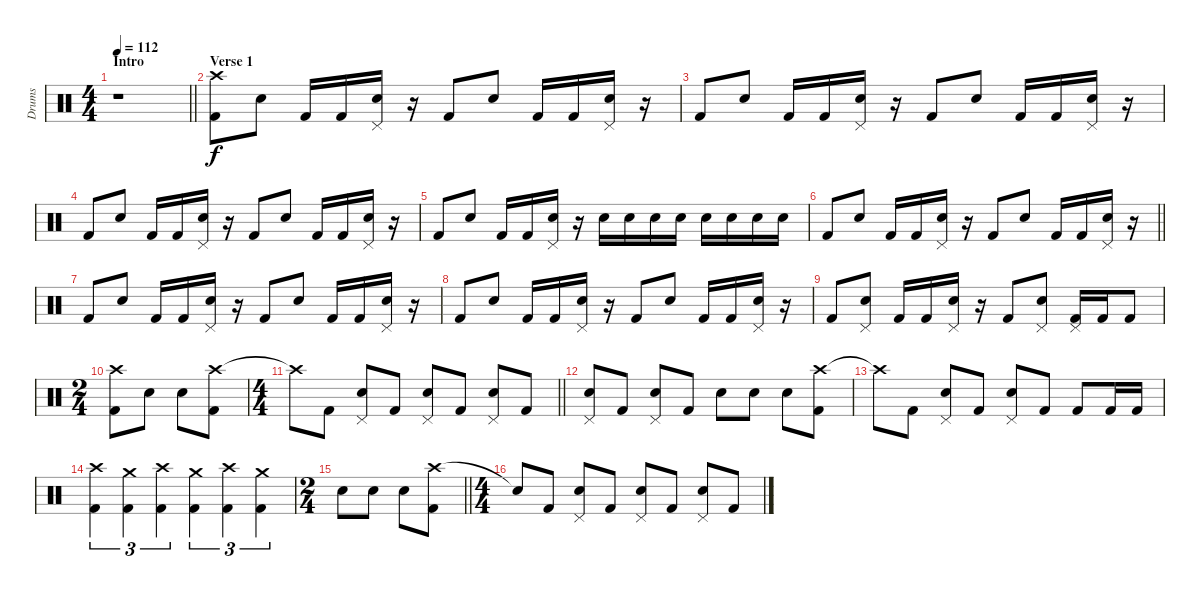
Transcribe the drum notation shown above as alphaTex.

\track ("Drums" "Drums") {instrument percussion}
\staff {score}
\articulation defaults
\ts (4 4)
\section ("" "Intro")
\tempo 112
\tempo 210
\tempo 112
\clef neutral
\barLineRight lightlight
\ks c
r.1{dy f} |
\section ("" "Verse 1")
("Crash high (hit)" "Kick (hit) 2").8 "Electric Snare (hit)".8 "Kick (hit) 2".16 "Kick (hit) 2".16 ("Pedal Hi-Hat (hit)" "Electric Snare (hit)").16 r.16 "Kick (hit) 2".8 "Electric Snare (hit)".8 "Kick (hit) 2".16 "Kick (hit) 2".16 ("Pedal Hi-Hat (hit)" "Electric Snare (hit)").16 r.16 |
"Kick (hit) 2".8 "Electric Snare (hit)".8 "Kick (hit) 2".16 "Kick (hit) 2".16 ("Pedal Hi-Hat (hit)" "Electric Snare (hit)").16 r.16 "Kick (hit) 2".8 "Electric Snare (hit)".8 "Kick (hit) 2".16 "Kick (hit) 2".16 ("Pedal Hi-Hat (hit)" "Electric Snare (hit)").16 r.16 |
"Kick (hit) 2".8 "Electric Snare (hit)".8 "Kick (hit) 2".16 "Kick (hit) 2".16 ("Pedal Hi-Hat (hit)" "Electric Snare (hit)").16 r.16 "Kick (hit) 2".8 "Electric Snare (hit)".8 "Kick (hit) 2".16 "Kick (hit) 2".16 ("Pedal Hi-Hat (hit)" "Electric Snare (hit)").16 r.16 |
"Kick (hit) 2".8 "Electric Snare (hit)".8 "Kick (hit) 2".16 "Kick (hit) 2".16 ("Pedal Hi-Hat (hit)" "Electric Snare (hit)").16 r.16 "Electric Snare (hit)".16 "Electric Snare (hit)".16 "Electric Snare (hit)".16 "Electric Snare (hit)".16 "Electric Snare (hit)".16 "Electric Snare (hit)".16 "Electric Snare (hit)".16 "Electric Snare (hit)".16 |
\barLineRight lightlight "Kick (hit) 2".8 "Electric Snare (hit)".8 "Kick (hit) 2".16 "Kick (hit) 2".16
("Pedal Hi-Hat (hit)" "Electric Snare (hit)").16 r.16 "Kick (hit) 2".8 "Electric Snare (hit)".8 "Kick (hit) 2".16 "Kick (hit) 2".16 ("Pedal Hi-Hat (hit)" "Electric Snare (hit)").16 r.16 |
\section ("" "")
"Kick (hit) 2".8 "Electric Snare (hit)".8 "Kick (hit) 2".16 "Kick (hit) 2".16 ("Pedal Hi-Hat (hit)" "Electric Snare (hit)").16 r.16 "Kick (hit) 2".8 "Electric Snare (hit)".8 "Kick (hit) 2".16 "Kick (hit) 2".16 ("Pedal Hi-Hat (hit)" "Electric Snare (hit)").16 r.16 |
"Kick (hit) 2".8 "Electric Snare (hit)".8 "Kick (hit) 2".16 "Kick (hit) 2".16 ("Pedal Hi-Hat (hit)" "Electric Snare (hit)").16 r.16 "Kick (hit) 2".8 "Electric Snare (hit)".8 "Kick (hit) 2".16 "Kick (hit) 2".16 ("Pedal Hi-Hat (hit)" "Electric Snare (hit)").16 r.16 |
"Kick (hit) 2".8 ("Pedal Hi-Hat (hit)" "Electric Snare (hit)").8 "Kick (hit) 2".16 "Kick (hit) 2".16 ("Pedal Hi-Hat (hit)" "Electric Snare (hit)").16 r.16 "Kick (hit) 2".8 ("Pedal Hi-Hat (hit)" "Electric Snare (hit)").8 ("Pedal Hi-Hat (hit)" "Kick (hit) 2").16 "Kick (hit) 2".16 "Kick (hit) 2".8 |
\ts (2 4)
("Crash high (hit)" "Kick (hit) 2").8 "Electric Snare (hit)".8 "Electric Snare (hit)".8 ("Crash high (hit)" "Kick (hit) 2").8 |
\ts (4 4)
\barLineRight lightlight "Crash high (hit)"{t}.8 "Kick (hit) 2".8
("Pedal Hi-Hat (hit)" "Electric Snare (hit)").8 "Kick (hit) 2".8 ("Pedal Hi-Hat (hit)" "Electric Snare (hit)").8 "Kick (hit) 2".8 ("Pedal Hi-Hat (hit)" "Electric Snare (hit)").8 "Kick (hit) 2".8 |
\section ("" "")
("Pedal Hi-Hat (hit)" "Electric Snare (hit)").8 "Kick (hit) 2".8 ("Pedal Hi-Hat (hit)" "Electric Snare (hit)").8 "Kick (hit) 2".8 "Electric Snare (hit)".8 "Electric Snare (hit)".8 "Electric Snare (hit)".8 ("Crash high (hit)" "Kick (hit) 2").8 |
"Crash high (hit)"{t}.8 "Kick (hit) 2".8 ("Pedal Hi-Hat (hit)" "Electric Snare (hit)").8 "Kick (hit) 2".8 ("Pedal Hi-Hat (hit)" "Electric Snare (hit)").8 "Kick (hit) 2".8 "Kick (hit) 2".8 "Kick (hit) 2".16 "Kick (hit) 2".16 |
("Crash high (hit)" "Kick (hit) 2").4{tu (3 2)} ("Crash medium (hit)" "Kick (hit) 2").4{tu (3 2)} ("Crash high (hit)" "Kick (hit) 2").4{tu (3 2)} ("Crash medium (hit)" "Kick (hit) 2").4{tu (3 2)} ("Crash high (hit)" "Kick (hit) 2").4{tu (3 2)} ("Crash medium (hit)" "Kick (hit) 2").4{tu (3 2)} |
\ts (2 4)
\barLineRight lightlight "Electric Snare (hit)".8 "Electric Snare (hit)".8 "Electric Snare (hit)".8
("Crash high (hit)" "Kick (hit) 2").8 |
\ts (4 4)
\section ("" "")
"Snare (hit)"{t}.8 "Kick (hit) 2".8 ("Pedal Hi-Hat (hit)" "Electric Snare (hit)").8 "Kick (hit) 2".8 ("Pedal Hi-Hat (hit)" "Electric Snare (hit)").8 "Kick (hit) 2".8 ("Pedal Hi-Hat (hit)" "Electric Snare (hit)").8 "Kick (hit) 2".8
